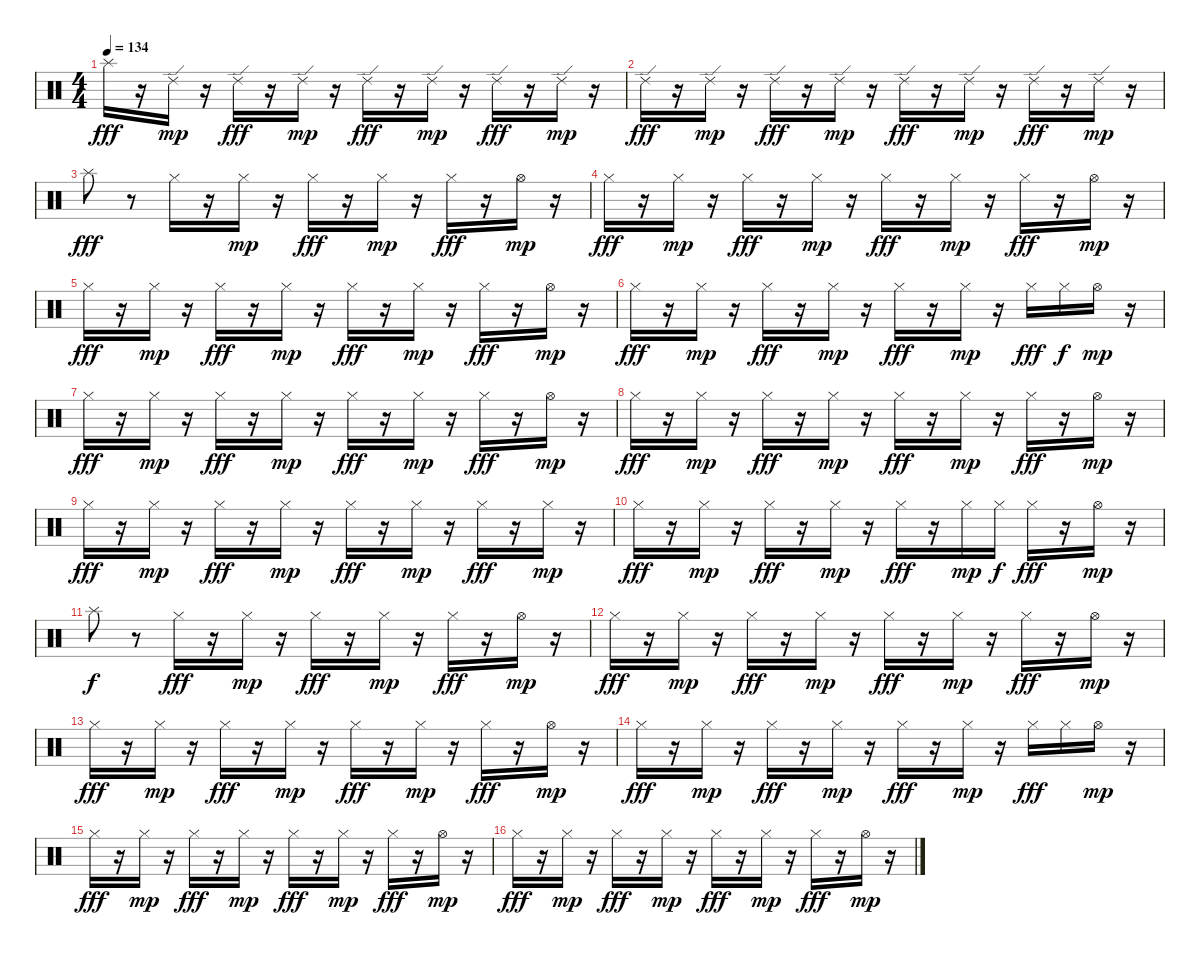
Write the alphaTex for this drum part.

\track "" {instrument percussion}
\staff {score}
\articulation defaults
\ts (4 4)
\tempo 134
\clef neutral
\ks c "Splash (hit)".16{dy fff}
r.16 "Ride (edge) 2".16{dy mp} r.16 "Ride (edge) 2".16{dy fff} r.16 "Ride (edge) 2".16{dy mp} r.16 "Ride (edge) 2".16{dy fff} r.16 "Ride (edge) 2".16{dy mp} r.16 "Ride (edge) 2".16{dy fff} r.16 "Ride (edge) 2".16{dy mp} r.16 |
"Ride (edge) 2".16{dy fff} r.16 "Ride (edge) 2".16{dy mp} r.16 "Ride (edge) 2".16{dy fff} r.16 "Ride (edge) 2".16{dy mp} r.16 "Ride (edge) 2".16{dy fff} r.16 "Ride (edge) 2".16{dy mp} r.16 "Ride (edge) 2".16{dy fff} r.16 "Ride (edge) 2".16{dy mp} r.16 |
"Splash (hit)".8{dy fff} r.8 "Hi-Hat (closed)".16 r.16 "Hi-Hat (closed)".16{dy mp} r.16 "Hi-Hat (closed)".16{dy fff} r.16 "Hi-Hat (closed)".16{dy mp} r.16 "Hi-Hat (closed)".16{dy fff} r.16 "Hi-Hat (open)".16{dy mp} r.16 |
"Hi-Hat (closed)".16{dy fff} r.16 "Hi-Hat (closed)".16{dy mp} r.16 "Hi-Hat (closed)".16{dy fff} r.16 "Hi-Hat (closed)".16{dy mp} r.16 "Hi-Hat (closed)".16{dy fff} r.16 "Hi-Hat (closed)".16{dy mp} r.16 "Hi-Hat (closed)".16{dy fff} r.16 "Hi-Hat (open)".16{dy mp} r.16 |
"Hi-Hat (closed)".16{dy fff} r.16 "Hi-Hat (closed)".16{dy mp} r.16 "Hi-Hat (closed)".16{dy fff} r.16 "Hi-Hat (closed)".16{dy mp} r.16 "Hi-Hat (closed)".16{dy fff} r.16 "Hi-Hat (closed)".16{dy mp} r.16 "Hi-Hat (closed)".16{dy fff} r.16 "Hi-Hat (open)".16{dy mp} r.16 |
"Hi-Hat (closed)".16{dy fff} r.16 "Hi-Hat (closed)".16{dy mp} r.16 "Hi-Hat (closed)".16{dy fff} r.16 "Hi-Hat (closed)".16{dy mp} r.16 "Hi-Hat (closed)".16{dy fff} r.16 "Hi-Hat (closed)".16{dy mp} r.16 "Hi-Hat (closed)".16{dy fff} "Hi-Hat (closed)".16{dy f} "Hi-Hat (open)".16{dy mp} r.16 |
"Hi-Hat (closed)".16{dy fff} r.16 "Hi-Hat (closed)".16{dy mp} r.16 "Hi-Hat (closed)".16{dy fff} r.16 "Hi-Hat (closed)".16{dy mp} r.16 "Hi-Hat (closed)".16{dy fff} r.16 "Hi-Hat (closed)".16{dy mp} r.16 "Hi-Hat (closed)".16{dy fff} r.16 "Hi-Hat (open)".16{dy mp} r.16 |
"Hi-Hat (closed)".16{dy fff} r.16 "Hi-Hat (closed)".16{dy mp} r.16 "Hi-Hat (closed)".16{dy fff} r.16 "Hi-Hat (closed)".16{dy mp} r.16 "Hi-Hat (closed)".16{dy fff} r.16 "Hi-Hat (closed)".16{dy mp} r.16 "Hi-Hat (closed)".16{dy fff} r.16 "Hi-Hat (open)".16{dy mp} r.16 |
"Hi-Hat (closed)".16{dy fff} r.16 "Hi-Hat (closed)".16{dy mp} r.16 "Hi-Hat (closed)".16{dy fff} r.16 "Hi-Hat (closed)".16{dy mp} r.16 "Hi-Hat (closed)".16{dy fff} r.16 "Hi-Hat (closed)".16{dy mp} r.16 "Hi-Hat (closed)".16{dy fff} r.16 "Hi-Hat (closed)".16{dy mp} r.16 |
"Hi-Hat (closed)".16{dy fff} r.16 "Hi-Hat (closed)".16{dy mp} r.16 "Hi-Hat (closed)".16{dy fff} r.16 "Hi-Hat (closed)".16{dy mp} r.16 "Hi-Hat (closed)".16{dy fff} r.16 "Hi-Hat (closed)".16{dy mp} "Hi-Hat (closed)".16{dy f} "Hi-Hat (closed)".16{dy fff} r.16 "Hi-Hat (open)".16{dy mp} r.16 |
"Splash (hit)".8{dy f} r.8 "Hi-Hat (closed)".16{dy fff} r.16 "Hi-Hat (closed)".16{dy mp} r.16 "Hi-Hat (closed)".16{dy fff} r.16 "Hi-Hat (closed)".16{dy mp} r.16 "Hi-Hat (closed)".16{dy fff} r.16 "Hi-Hat (open)".16{dy mp} r.16 |
"Hi-Hat (closed)".16{dy fff} r.16 "Hi-Hat (closed)".16{dy mp} r.16 "Hi-Hat (closed)".16{dy fff} r.16 "Hi-Hat (closed)".16{dy mp} r.16 "Hi-Hat (closed)".16{dy fff} r.16 "Hi-Hat (closed)".16{dy mp} r.16 "Hi-Hat (closed)".16{dy fff} r.16 "Hi-Hat (open)".16{dy mp} r.16 |
"Hi-Hat (closed)".16{dy fff} r.16 "Hi-Hat (closed)".16{dy mp} r.16 "Hi-Hat (closed)".16{dy fff} r.16 "Hi-Hat (closed)".16{dy mp} r.16 "Hi-Hat (closed)".16{dy fff} r.16 "Hi-Hat (closed)".16{dy mp} r.16 "Hi-Hat (closed)".16{dy fff} r.16 "Hi-Hat (open)".16{dy mp} r.16 |
"Hi-Hat (closed)".16{dy fff} r.16 "Hi-Hat (closed)".16{dy mp} r.16 "Hi-Hat (closed)".16{dy fff} r.16 "Hi-Hat (closed)".16{dy mp} r.16 "Hi-Hat (closed)".16{dy fff} r.16 "Hi-Hat (closed)".16{dy mp} r.16 "Hi-Hat (closed)".16{dy fff} "Hi-Hat (closed)".16 "Hi-Hat (open)".16{dy mp} r.16 |
"Hi-Hat (closed)".16{dy fff} r.16 "Hi-Hat (closed)".16{dy mp} r.16 "Hi-Hat (closed)".16{dy fff} r.16 "Hi-Hat (closed)".16{dy mp} r.16 "Hi-Hat (closed)".16{dy fff} r.16 "Hi-Hat (closed)".16{dy mp} r.16 "Hi-Hat (closed)".16{dy fff} r.16 "Hi-Hat (open)".16{dy mp} r.16 |
"Hi-Hat (closed)".16{dy fff} r.16 "Hi-Hat (closed)".16{dy mp} r.16 "Hi-Hat (closed)".16{dy fff} r.16 "Hi-Hat (closed)".16{dy mp} r.16 "Hi-Hat (closed)".16{dy fff} r.16 "Hi-Hat (closed)".16{dy mp} r.16 "Hi-Hat (closed)".16{dy fff} r.16 "Hi-Hat (open)".16{dy mp} r.16
